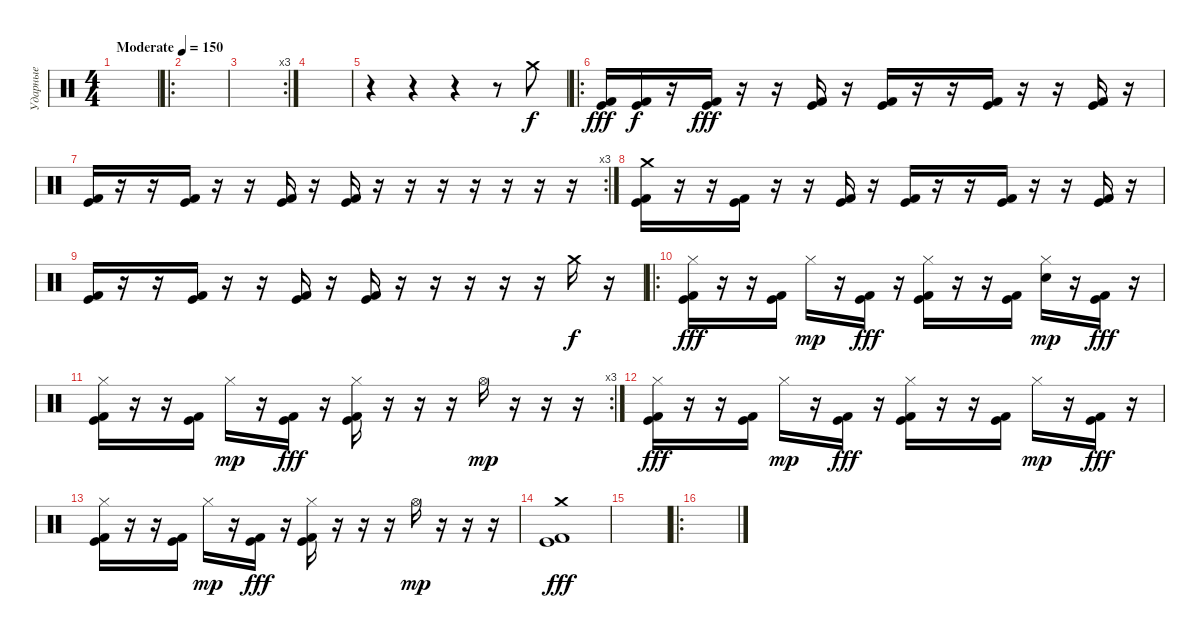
\track ("Ударные" "Ударные") {instrument percussion}
\staff {score}
\articulation defaults
\ts (4 4)
\tempo (150 "Moderate")
\clef neutral
\ks c
|
\ro
|
\rc 3
|
|
r.4 r.4 r.4 r.8 "Crash medium (hit)".8 |
\ro
("Kick (hit) 2" "Kick (hit)").16{dy fff} ("Kick (hit)" "Kick (hit) 2").16{dy f} r.16 ("Kick (hit) 2" "Kick (hit)").16{dy fff} r.16 r.16 ("Kick (hit) 2" "Kick (hit)").16 r.16 ("Kick (hit) 2" "Kick (hit)").16 r.16 r.16 ("Kick (hit) 2" "Kick (hit)").16 r.16 r.16 ("Kick (hit) 2" "Kick (hit)").16 r.16 |
\rc 3
("Kick (hit) 2" "Kick (hit)").16 r.16 r.16 ("Kick (hit) 2" "Kick (hit)").16 r.16 r.16 ("Kick (hit) 2" "Kick (hit)").16 r.16 ("Kick (hit) 2" "Kick (hit)").16 r.16 r.16 r.16 r.16 r.16 r.16 r.16 |
("Crash medium (hit)" "Kick (hit) 2" "Kick (hit)").16 r.16 r.16 ("Kick (hit) 2" "Kick (hit)").16 r.16 r.16 ("Kick (hit) 2" "Kick (hit)").16 r.16 ("Kick (hit) 2" "Kick (hit)").16 r.16 r.16 ("Kick (hit) 2" "Kick (hit)").16 r.16 r.16 ("Kick (hit) 2" "Kick (hit)").16 r.16 |
("Kick (hit) 2" "Kick (hit)").16 r.16 r.16 ("Kick (hit) 2" "Kick (hit)").16 r.16 r.16 ("Kick (hit) 2" "Kick (hit)").16 r.16 ("Kick (hit) 2" "Kick (hit)").16 r.16 r.16 r.16 r.16 r.16 "Crash medium (hit)".16{dy f} r.16 |
\ro
("Hi-Hat (closed)" "Kick (hit) 2" "Kick (hit)").16{dy fff} r.16 r.16 ("Kick (hit) 2" "Kick (hit)").16 "Hi-Hat (closed)".16{dy mp} r.16 ("Kick (hit) 2" "Kick (hit)").16{dy fff} r.16 ("Hi-Hat (closed)" "Kick (hit) 2" "Kick (hit)").16 r.16 r.16 ("Kick (hit) 2" "Kick (hit)").16 ("Hi-Hat (closed)" "Snare (hit)").16{dy mp} r.16 ("Kick (hit) 2" "Kick (hit)").16{dy fff} r.16 |
\rc 3
("Hi-Hat (closed)" "Kick (hit) 2" "Kick (hit)").16 r.16 r.16 ("Kick (hit) 2" "Kick (hit)").16 "Hi-Hat (closed)".16{dy mp} r.16 ("Kick (hit) 2" "Kick (hit)").16{dy fff} r.16 ("Hi-Hat (closed)" "Kick (hit) 2" "Kick (hit)").16 r.16 r.16 r.16 "Hi-Hat (open)".16{dy mp} r.16 r.16 r.16 |
("Hi-Hat (closed)" "Kick (hit) 2" "Kick (hit)").16{dy fff} r.16 r.16 ("Kick (hit) 2" "Kick (hit)").16 "Hi-Hat (closed)".16{dy mp} r.16 ("Kick (hit) 2" "Kick (hit)").16{dy fff} r.16 ("Hi-Hat (closed)" "Kick (hit) 2" "Kick (hit)").16 r.16 r.16 ("Kick (hit) 2" "Kick (hit)").16 "Hi-Hat (closed)".16{dy mp} r.16 ("Kick (hit) 2" "Kick (hit)").16{dy fff} r.16 |
("Hi-Hat (closed)" "Kick (hit) 2" "Kick (hit)").16 r.16 r.16 ("Kick (hit) 2" "Kick (hit)").16 "Hi-Hat (closed)".16{dy mp} r.16 ("Kick (hit) 2" "Kick (hit)").16{dy fff} r.16 ("Hi-Hat (closed)" "Kick (hit) 2" "Kick (hit)").16 r.16 r.16 r.16 "Hi-Hat (open)".16{dy mp} r.16 r.16 r.16 |
("Crash medium (hit)" "Kick (hit) 2" "Kick (hit)").1{dy fff} |
|
\ro
